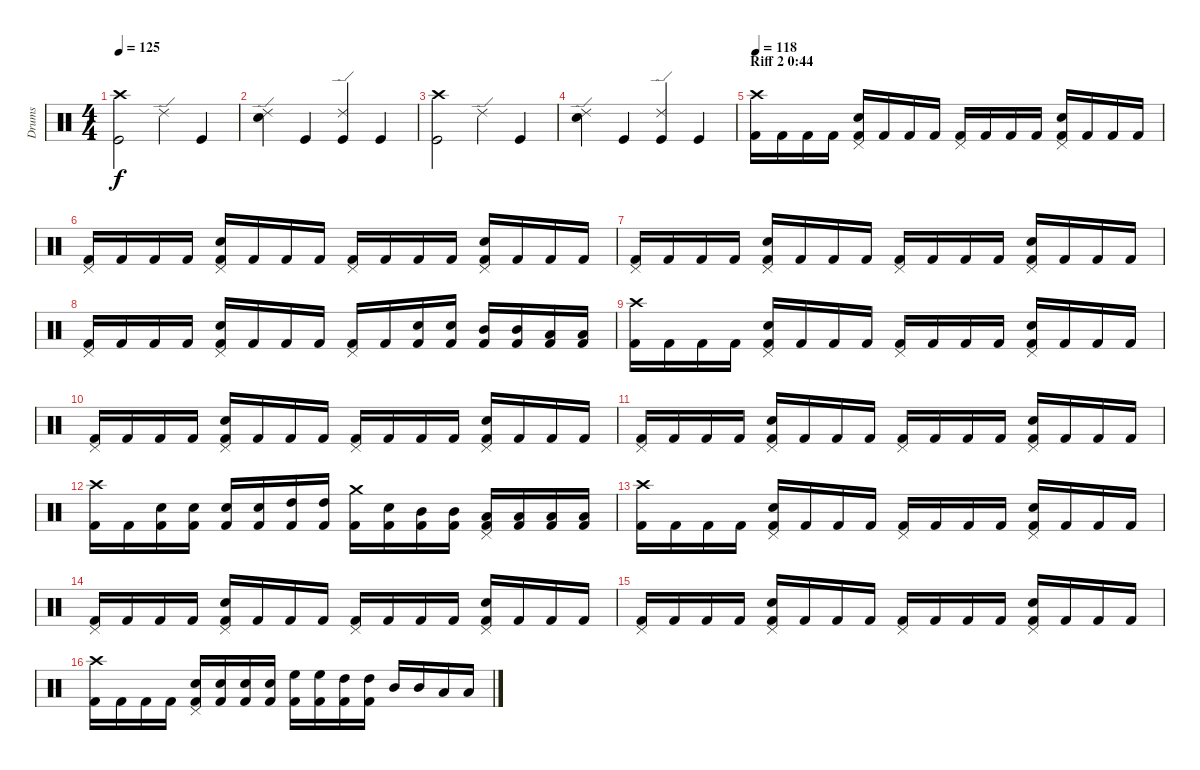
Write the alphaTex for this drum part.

\track ("Drums" "Drums") {instrument percussion}
\staff {score}
\articulation defaults
\ts (4 4)
\tempo 125
\clef neutral
\ks c
("Crash high (hit)" "Kick (hit)").2{dy f} "Ride (edge) 2".4 "Kick (hit)".4 |
("Ride (edge) 2" "Snare (hit) 2").4 "Kick (hit)".4 ("Ride (edge) 2" "Kick (hit)").4 "Kick (hit)".4 |
("Crash high (hit)" "Kick (hit)").2 "Ride (edge) 2".4 "Kick (hit)".4 |
("Ride (edge) 2" "Snare (hit) 2").4 "Kick (hit)".4 ("Ride (edge) 2" "Kick (hit)").4 "Kick (hit)".4 |
\section ("" "Riff 2 0:44")
\tempo 118
("Crash high (hit)" "Kick (hit) 2").16 "Kick (hit) 2".16 "Kick (hit) 2".16 "Kick (hit) 2".16 ("Pedal Hi-Hat (hit)" "Electric Snare (hit)" "Kick (hit) 2").16 "Kick (hit) 2".16 "Kick (hit) 2".16 "Kick (hit) 2".16 ("Pedal Hi-Hat (hit)" "Kick (hit) 2").16 "Kick (hit) 2".16 "Kick (hit) 2".16 "Kick (hit) 2".16 ("Pedal Hi-Hat (hit)" "Electric Snare (hit)" "Kick (hit) 2").16 "Kick (hit) 2".16 "Kick (hit) 2".16 "Kick (hit) 2".16 |
("Pedal Hi-Hat (hit)" "Kick (hit) 2").16 "Kick (hit) 2".16 "Kick (hit) 2".16 "Kick (hit) 2".16 ("Pedal Hi-Hat (hit)" "Electric Snare (hit)" "Kick (hit) 2").16 "Kick (hit) 2".16 "Kick (hit) 2".16 "Kick (hit) 2".16 ("Pedal Hi-Hat (hit)" "Kick (hit) 2").16 "Kick (hit) 2".16 "Kick (hit) 2".16 "Kick (hit) 2".16 ("Pedal Hi-Hat (hit)" "Electric Snare (hit)" "Kick (hit) 2").16 "Kick (hit) 2".16 "Kick (hit) 2".16 "Kick (hit) 2".16 |
("Pedal Hi-Hat (hit)" "Kick (hit) 2").16 "Kick (hit) 2".16 "Kick (hit) 2".16 "Kick (hit) 2".16 ("Pedal Hi-Hat (hit)" "Electric Snare (hit)" "Kick (hit) 2").16 "Kick (hit) 2".16 "Kick (hit) 2".16 "Kick (hit) 2".16 ("Pedal Hi-Hat (hit)" "Kick (hit) 2").16 "Kick (hit) 2".16 "Kick (hit) 2".16 "Kick (hit) 2".16 ("Pedal Hi-Hat (hit)" "Electric Snare (hit)" "Kick (hit) 2").16 "Kick (hit) 2".16 "Kick (hit) 2".16 "Kick (hit) 2".16 |
("Pedal Hi-Hat (hit)" "Kick (hit) 2").16 "Kick (hit) 2".16 "Kick (hit) 2".16 "Kick (hit) 2".16 ("Pedal Hi-Hat (hit)" "Electric Snare (hit)" "Kick (hit) 2").16 "Kick (hit) 2".16 "Kick (hit) 2".16 "Kick (hit) 2".16 ("Pedal Hi-Hat (hit)" "Kick (hit) 2").16 "Kick (hit) 2".16 ("Electric Snare (hit)" "Kick (hit) 2").16 ("Electric Snare (hit)" "Kick (hit) 2").16 ("Mid Tom (hit)" "Kick (hit) 2").16 ("Mid Tom (hit)" "Kick (hit) 2").16 ("Low Tom (hit)" "Kick (hit) 2").16 ("Low Tom (hit)" "Kick (hit) 2").16 |
("Crash high (hit)" "Kick (hit) 2").16 "Kick (hit) 2".16 "Kick (hit) 2".16 "Kick (hit) 2".16 ("Pedal Hi-Hat (hit)" "Electric Snare (hit)" "Kick (hit) 2").16 "Kick (hit) 2".16 "Kick (hit) 2".16 "Kick (hit) 2".16 ("Pedal Hi-Hat (hit)" "Kick (hit) 2").16 "Kick (hit) 2".16 "Kick (hit) 2".16 "Kick (hit) 2".16 ("Pedal Hi-Hat (hit)" "Electric Snare (hit)" "Kick (hit) 2").16 "Kick (hit) 2".16 "Kick (hit) 2".16 "Kick (hit) 2".16 |
("Pedal Hi-Hat (hit)" "Kick (hit) 2").16 "Kick (hit) 2".16 "Kick (hit) 2".16 "Kick (hit) 2".16 ("Pedal Hi-Hat (hit)" "Electric Snare (hit)" "Kick (hit) 2").16 "Kick (hit) 2".16 "Kick (hit) 2".16 "Kick (hit) 2".16 ("Pedal Hi-Hat (hit)" "Kick (hit) 2").16 "Kick (hit) 2".16 "Kick (hit) 2".16 "Kick (hit) 2".16 ("Pedal Hi-Hat (hit)" "Electric Snare (hit)" "Kick (hit) 2").16 "Kick (hit) 2".16 "Kick (hit) 2".16 "Kick (hit) 2".16 |
("Pedal Hi-Hat (hit)" "Kick (hit) 2").16 "Kick (hit) 2".16 "Kick (hit) 2".16 "Kick (hit) 2".16 ("Pedal Hi-Hat (hit)" "Electric Snare (hit)" "Kick (hit) 2").16 "Kick (hit) 2".16 "Kick (hit) 2".16 "Kick (hit) 2".16 ("Pedal Hi-Hat (hit)" "Kick (hit) 2").16 "Kick (hit) 2".16 "Kick (hit) 2".16 "Kick (hit) 2".16 ("Pedal Hi-Hat (hit)" "Electric Snare (hit)" "Kick (hit) 2").16 "Kick (hit) 2".16 "Kick (hit) 2".16 "Kick (hit) 2".16 |
("Crash high (hit)" "Kick (hit) 2").16 "Kick (hit) 2".16 ("Electric Snare (hit)" "Kick (hit) 2").16 ("Electric Snare (hit)" "Kick (hit) 2").16 ("Electric Snare (hit)" "Kick (hit) 2").16 ("Electric Snare (hit)" "Kick (hit) 2").16 ("High Tom (hit)" "Kick (hit) 2").16 ("High Tom (hit)" "Kick (hit) 2").16 ("Crash medium (hit)" "Kick (hit) 2").16 ("Electric Snare (hit)" "Kick (hit) 2").16 ("Mid Tom (hit)" "Kick (hit) 2").16 ("Mid Tom (hit)" "Kick (hit) 2").16 ("Pedal Hi-Hat (hit)" "Low Tom (hit)" "Kick (hit) 2").16 ("Low Tom (hit)" "Kick (hit) 2").16 ("Low Floor Tom (hit)" "Kick (hit) 2").16 ("Low Floor Tom (hit)" "Kick (hit) 2").16 |
("Crash high (hit)" "Kick (hit) 2").16 "Kick (hit) 2".16 "Kick (hit) 2".16 "Kick (hit) 2".16 ("Pedal Hi-Hat (hit)" "Electric Snare (hit)" "Kick (hit) 2").16 "Kick (hit) 2".16 "Kick (hit) 2".16 "Kick (hit) 2".16 ("Pedal Hi-Hat (hit)" "Kick (hit) 2").16 "Kick (hit) 2".16 "Kick (hit) 2".16 "Kick (hit) 2".16 ("Pedal Hi-Hat (hit)" "Electric Snare (hit)" "Kick (hit) 2").16 "Kick (hit) 2".16 "Kick (hit) 2".16 "Kick (hit) 2".16 |
("Pedal Hi-Hat (hit)" "Kick (hit) 2").16 "Kick (hit) 2".16 "Kick (hit) 2".16 "Kick (hit) 2".16 ("Pedal Hi-Hat (hit)" "Electric Snare (hit)" "Kick (hit) 2").16 "Kick (hit) 2".16 "Kick (hit) 2".16 "Kick (hit) 2".16 ("Pedal Hi-Hat (hit)" "Kick (hit) 2").16 "Kick (hit) 2".16 "Kick (hit) 2".16 "Kick (hit) 2".16 ("Pedal Hi-Hat (hit)" "Electric Snare (hit)" "Kick (hit) 2").16 "Kick (hit) 2".16 "Kick (hit) 2".16 "Kick (hit) 2".16 |
("Pedal Hi-Hat (hit)" "Kick (hit) 2").16 "Kick (hit) 2".16 "Kick (hit) 2".16 "Kick (hit) 2".16 ("Pedal Hi-Hat (hit)" "Electric Snare (hit)" "Kick (hit) 2").16 "Kick (hit) 2".16 "Kick (hit) 2".16 "Kick (hit) 2".16 ("Pedal Hi-Hat (hit)" "Kick (hit) 2").16 "Kick (hit) 2".16 "Kick (hit) 2".16 "Kick (hit) 2".16 ("Pedal Hi-Hat (hit)" "Electric Snare (hit)" "Kick (hit) 2").16 "Kick (hit) 2".16 "Kick (hit) 2".16 "Kick (hit) 2".16 |
("Crash high (hit)" "Kick (hit) 2").16 "Kick (hit) 2".16 "Kick (hit) 2".16 "Kick (hit) 2".16 ("Pedal Hi-Hat (hit)" "Electric Snare (hit)" "Kick (hit) 2").16 ("Electric Snare (hit)" "Kick (hit) 2").16 ("Electric Snare (hit)" "Kick (hit) 2").16 ("Electric Snare (hit)" "Kick (hit) 2").16 ("High Floor Tom (hit)" "Kick (hit) 2").16 ("High Floor Tom (hit)" "Kick (hit) 2").16 ("High Tom (hit)" "Kick (hit) 2").16 ("High Tom (hit)" "Kick (hit) 2").16 "Mid Tom (hit)".16 "Mid Tom (hit)".16 "Low Tom (hit)".16 "Low Floor Tom (hit)".16
